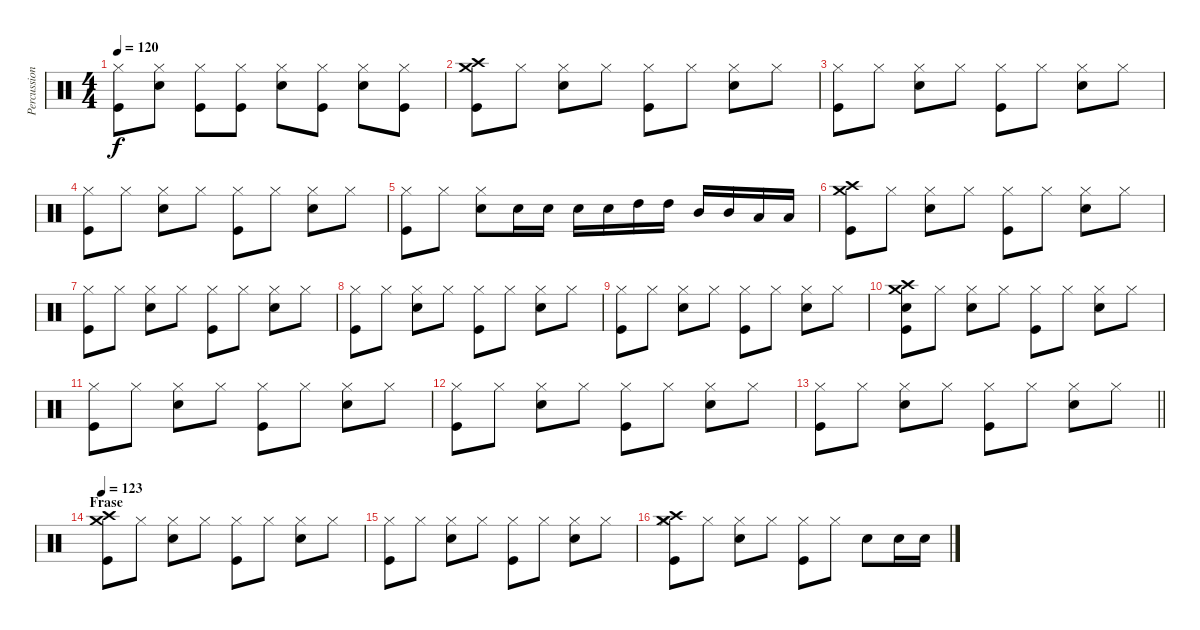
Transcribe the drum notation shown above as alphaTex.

\track ("Percussion" "Percussion") {instrument percussion}
\staff {score}
\articulation defaults
\ts (4 4)
\tempo 120
\clef neutral
\ks c
("Kick (hit)" "Hi-Hat (closed)").8{dy f} ("Snare (hit) 2" "Hi-Hat (closed)").8 ("Kick (hit)" "Hi-Hat (closed)").8 ("Kick (hit)" "Hi-Hat (closed)").8 ("Snare (hit) 2" "Hi-Hat (closed)").8 ("Kick (hit)" "Hi-Hat (closed)").8 ("Snare (hit) 2" "Hi-Hat (closed)").8 ("Kick (hit)" "Hi-Hat (closed)").8 |
("Crash high (hit)" "Kick (hit)" "Crash medium (hit)").8 "Hi-Hat (closed)".8 ("Hi-Hat (closed)" "Snare (hit) 2").8 "Hi-Hat (closed)".8 ("Hi-Hat (closed)" "Kick (hit)").8 "Hi-Hat (closed)".8 ("Hi-Hat (closed)" "Snare (hit) 2").8 "Hi-Hat (closed)".8 |
("Hi-Hat (closed)" "Kick (hit)").8 "Hi-Hat (closed)".8 ("Hi-Hat (closed)" "Snare (hit) 2").8 "Hi-Hat (closed)".8 ("Hi-Hat (closed)" "Kick (hit)").8 "Hi-Hat (closed)".8 ("Hi-Hat (closed)" "Snare (hit) 2").8 "Hi-Hat (closed)".8 |
("Hi-Hat (closed)" "Kick (hit)").8 "Hi-Hat (closed)".8 ("Hi-Hat (closed)" "Snare (hit) 2").8 "Hi-Hat (closed)".8 ("Hi-Hat (closed)" "Kick (hit)").8 "Hi-Hat (closed)".8 ("Hi-Hat (closed)" "Snare (hit) 2").8 "Hi-Hat (closed)".8 |
("Hi-Hat (closed)" "Kick (hit)").8 "Hi-Hat (closed)".8 ("Hi-Hat (closed)" "Snare (hit) 2").8 "Snare (hit) 2".16 "Snare (hit) 2".16 "Snare (hit) 2".16 "Snare (hit) 2".16 "High Tom (hit)".16 "High Tom (hit)".16 "Mid Tom (hit)".16 "Mid Tom (hit)".16 "Low Tom (hit)".16 "Low Tom (hit)".16 |
("Crash high (hit)" "Kick (hit)" "Crash medium (hit)").8 "Hi-Hat (closed)".8 ("Hi-Hat (closed)" "Snare (hit) 2").8 "Hi-Hat (closed)".8 ("Hi-Hat (closed)" "Kick (hit)").8 "Hi-Hat (closed)".8 ("Hi-Hat (closed)" "Snare (hit) 2").8 "Hi-Hat (closed)".8 |
("Hi-Hat (closed)" "Kick (hit)").8 "Hi-Hat (closed)".8 ("Hi-Hat (closed)" "Snare (hit) 2").8 "Hi-Hat (closed)".8 ("Hi-Hat (closed)" "Kick (hit)").8 "Hi-Hat (closed)".8 ("Hi-Hat (closed)" "Snare (hit) 2").8 "Hi-Hat (closed)".8 |
("Hi-Hat (closed)" "Kick (hit)").8 "Hi-Hat (closed)".8 ("Hi-Hat (closed)" "Snare (hit) 2").8 "Hi-Hat (closed)".8 ("Hi-Hat (closed)" "Kick (hit)").8 "Hi-Hat (closed)".8 ("Hi-Hat (closed)" "Snare (hit) 2").8 "Hi-Hat (closed)".8 |
("Hi-Hat (closed)" "Kick (hit)").8 "Hi-Hat (closed)".8 ("Hi-Hat (closed)" "Snare (hit) 2").8 "Hi-Hat (closed)".8 ("Hi-Hat (closed)" "Kick (hit)").8 "Hi-Hat (closed)".8 ("Hi-Hat (closed)" "Snare (hit) 2").8 "Hi-Hat (closed)".8 |
("Crash high (hit)" "Kick (hit)" "Crash medium (hit)" "Snare (hit) 2").8 "Hi-Hat (closed)".8 ("Hi-Hat (closed)" "Snare (hit) 2").8 "Hi-Hat (closed)".8 ("Hi-Hat (closed)" "Kick (hit)").8 "Hi-Hat (closed)".8 ("Hi-Hat (closed)" "Snare (hit) 2").8 "Hi-Hat (closed)".8 |
("Hi-Hat (closed)" "Kick (hit)").8 "Hi-Hat (closed)".8 ("Hi-Hat (closed)" "Snare (hit) 2").8 "Hi-Hat (closed)".8 ("Hi-Hat (closed)" "Kick (hit)").8 "Hi-Hat (closed)".8 ("Hi-Hat (closed)" "Snare (hit) 2").8 "Hi-Hat (closed)".8 |
("Hi-Hat (closed)" "Kick (hit)").8 "Hi-Hat (closed)".8 ("Hi-Hat (closed)" "Snare (hit) 2").8 "Hi-Hat (closed)".8 ("Hi-Hat (closed)" "Kick (hit)").8 "Hi-Hat (closed)".8 ("Hi-Hat (closed)" "Snare (hit) 2").8 "Hi-Hat (closed)".8 |
\barLineRight lightlight
("Hi-Hat (closed)" "Kick (hit)").8 "Hi-Hat (closed)".8 ("Hi-Hat (closed)" "Snare (hit) 2").8 "Hi-Hat (closed)".8 ("Hi-Hat (closed)" "Kick (hit)").8 "Hi-Hat (closed)".8 ("Hi-Hat (closed)" "Snare (hit) 2").8 "Hi-Hat (closed)".8 |
\section ("" "Frase")
\tempo 123
("Crash high (hit)" "Kick (hit)" "Crash medium (hit)").8 "Hi-Hat (closed)".8 ("Hi-Hat (closed)" "Snare (hit) 2").8 "Hi-Hat (closed)".8 ("Hi-Hat (closed)" "Kick (hit)").8 "Hi-Hat (closed)".8 ("Hi-Hat (closed)" "Snare (hit) 2").8 "Hi-Hat (closed)".8 |
("Hi-Hat (closed)" "Kick (hit)").8 "Hi-Hat (closed)".8 ("Hi-Hat (closed)" "Snare (hit) 2").8 "Hi-Hat (closed)".8 ("Hi-Hat (closed)" "Kick (hit)").8 "Hi-Hat (closed)".8 ("Hi-Hat (closed)" "Snare (hit) 2").8 "Hi-Hat (closed)".8 |
("Hi-Hat (closed)" "Kick (hit)" "Crash high (hit)" "Crash medium (hit)").8 "Hi-Hat (closed)".8 ("Hi-Hat (closed)" "Snare (hit) 2").8 "Hi-Hat (closed)".8 ("Hi-Hat (closed)" "Kick (hit)").8 "Hi-Hat (closed)".8 "Snare (hit) 2".8 "Snare (hit) 2".16 "Snare (hit) 2".16
